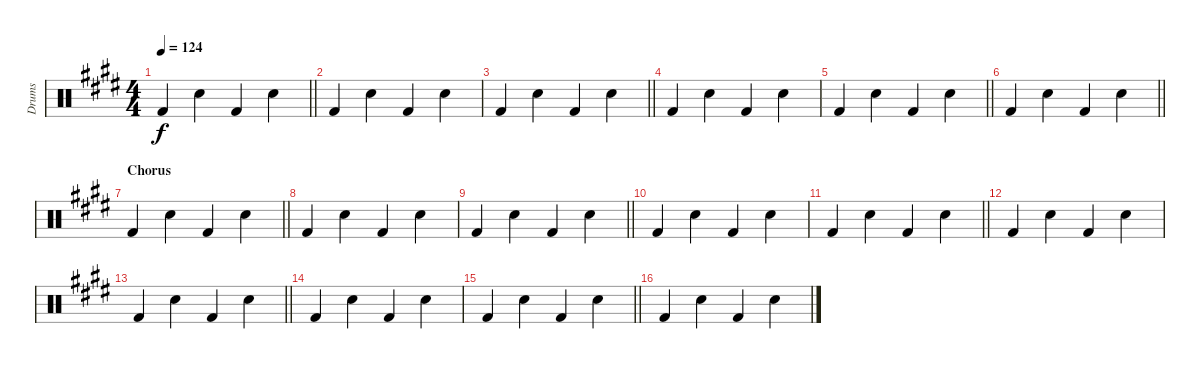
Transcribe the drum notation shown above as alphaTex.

\track ("Drums" "Drums") {instrument percussion}
\staff {score}
\articulation defaults
\ts (4 4)
\tempo 124
\clef neutral
\barLineRight lightlight
\ks e "Kick (hit) 2".4{dy f} "Snare (hit) 2".4 "Kick (hit) 2".4 "Snare (hit) 2".4
|
"Kick (hit) 2".4 "Snare (hit) 2".4 "Kick (hit) 2".4 "Snare (hit) 2".4 |
\barLineRight lightlight "Kick (hit) 2".4 "Snare (hit) 2".4 "Kick (hit) 2".4 "Snare (hit) 2".4
|
"Kick (hit) 2".4 "Snare (hit) 2".4 "Kick (hit) 2".4 "Snare (hit) 2".4 |
\barLineRight lightlight "Kick (hit) 2".4 "Snare (hit) 2".4 "Kick (hit) 2".4 "Snare (hit) 2".4
|
\barLineRight lightlight "Kick (hit) 2".4 "Snare (hit) 2".4 "Kick (hit) 2".4 "Snare (hit) 2".4
|
\section ("" "Chorus")
\barLineRight lightlight "Kick (hit) 2".4 "Snare (hit) 2".4 "Kick (hit) 2".4 "Snare (hit) 2".4
|
"Kick (hit) 2".4 "Snare (hit) 2".4 "Kick (hit) 2".4 "Snare (hit) 2".4 |
\barLineRight lightlight "Kick (hit) 2".4 "Snare (hit) 2".4 "Kick (hit) 2".4 "Snare (hit) 2".4
|
"Kick (hit) 2".4 "Snare (hit) 2".4 "Kick (hit) 2".4 "Snare (hit) 2".4 |
\barLineRight lightlight "Kick (hit) 2".4 "Snare (hit) 2".4 "Kick (hit) 2".4 "Snare (hit) 2".4
|
"Kick (hit) 2".4 "Snare (hit) 2".4 "Kick (hit) 2".4 "Snare (hit) 2".4 |
\barLineRight lightlight "Kick (hit) 2".4 "Snare (hit) 2".4 "Kick (hit) 2".4 "Snare (hit) 2".4
|
"Kick (hit) 2".4 "Snare (hit) 2".4 "Kick (hit) 2".4 "Snare (hit) 2".4 |
\barLineRight lightlight "Kick (hit) 2".4 "Snare (hit) 2".4 "Kick (hit) 2".4 "Snare (hit) 2".4
|
"Kick (hit) 2".4 "Snare (hit) 2".4 "Kick (hit) 2".4 "Snare (hit) 2".4
